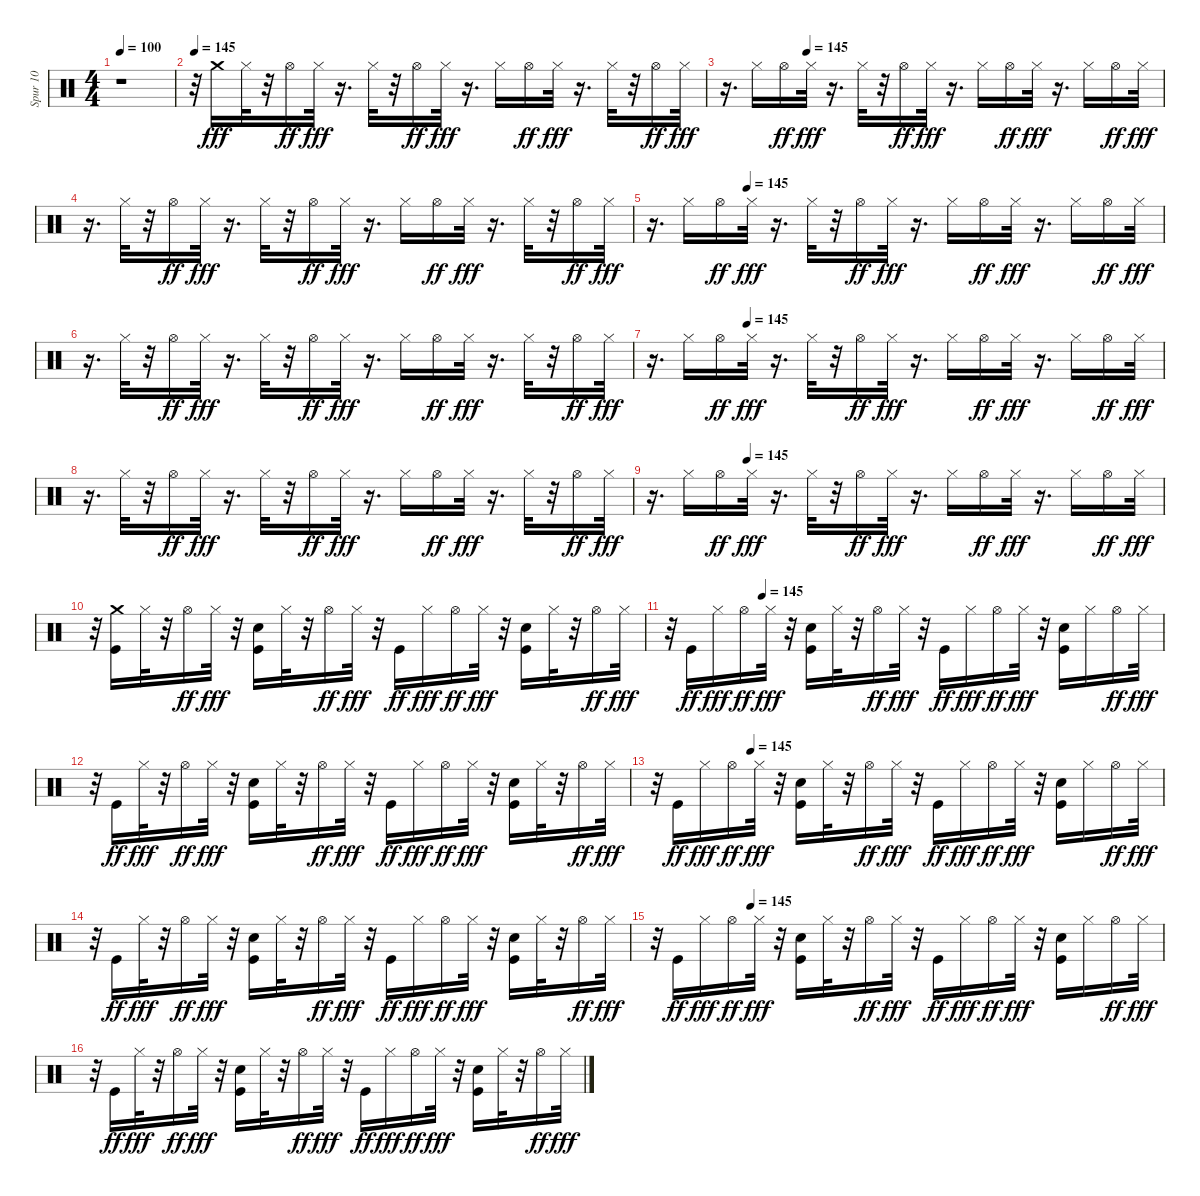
\track ("Spur 10" "Spur 10") {instrument percussion}
\staff {score}
\articulation defaults
\ts (4 4)
\tempo 100
\clef neutral
\ks c
r.1{dy fff} |
\tempo 145
r.32 "Crash medium (hit)".16 "Hi-Hat (closed)".32 r.32 "Hi-Hat (open)".16{dy ff} "Hi-Hat (closed)".32{dy fff} r.16{d} "Hi-Hat (closed)".32 r.32 "Hi-Hat (open)".16{dy ff} "Hi-Hat (closed)".32{dy fff} r.16{d} "Hi-Hat (closed)".16 "Hi-Hat (open)".16{dy ff} "Hi-Hat (closed)".32{dy fff} r.16{d} "Hi-Hat (closed)".32 r.32 "Hi-Hat (open)".16{dy ff} "Hi-Hat (closed)".32{dy fff} |
\tempo (145 0.1875)
r.16{d} "Hi-Hat (closed)".16 "Hi-Hat (open)".16{dy ff} "Hi-Hat (closed)".32{dy fff} r.16{d} "Hi-Hat (closed)".32 r.32 "Hi-Hat (open)".16{dy ff} "Hi-Hat (closed)".32{dy fff} r.16{d} "Hi-Hat (closed)".16 "Hi-Hat (open)".16{dy ff} "Hi-Hat (closed)".32{dy fff} r.16{d} "Hi-Hat (closed)".16 "Hi-Hat (open)".16{dy ff} "Hi-Hat (closed)".32{dy fff} |
r.16{d} "Hi-Hat (closed)".32 r.32 "Hi-Hat (open)".16{dy ff} "Hi-Hat (closed)".32{dy fff} r.16{d} "Hi-Hat (closed)".32 r.32 "Hi-Hat (open)".16{dy ff} "Hi-Hat (closed)".32{dy fff} r.16{d} "Hi-Hat (closed)".16 "Hi-Hat (open)".16{dy ff} "Hi-Hat (closed)".32{dy fff} r.16{d} "Hi-Hat (closed)".32 r.32 "Hi-Hat (open)".16{dy ff} "Hi-Hat (closed)".32{dy fff} |
\tempo (145 0.1875)
r.16{d} "Hi-Hat (closed)".16 "Hi-Hat (open)".16{dy ff} "Hi-Hat (closed)".32{dy fff} r.16{d} "Hi-Hat (closed)".32 r.32 "Hi-Hat (open)".16{dy ff} "Hi-Hat (closed)".32{dy fff} r.16{d} "Hi-Hat (closed)".16 "Hi-Hat (open)".16{dy ff} "Hi-Hat (closed)".32{dy fff} r.16{d} "Hi-Hat (closed)".16 "Hi-Hat (open)".16{dy ff} "Hi-Hat (closed)".32{dy fff} |
r.16{d} "Hi-Hat (closed)".32 r.32 "Hi-Hat (open)".16{dy ff} "Hi-Hat (closed)".32{dy fff} r.16{d} "Hi-Hat (closed)".32 r.32 "Hi-Hat (open)".16{dy ff} "Hi-Hat (closed)".32{dy fff} r.16{d} "Hi-Hat (closed)".16 "Hi-Hat (open)".16{dy ff} "Hi-Hat (closed)".32{dy fff} r.16{d} "Hi-Hat (closed)".32 r.32 "Hi-Hat (open)".16{dy ff} "Hi-Hat (closed)".32{dy fff} |
\tempo (145 0.1875)
r.16{d} "Hi-Hat (closed)".16 "Hi-Hat (open)".16{dy ff} "Hi-Hat (closed)".32{dy fff} r.16{d} "Hi-Hat (closed)".32 r.32 "Hi-Hat (open)".16{dy ff} "Hi-Hat (closed)".32{dy fff} r.16{d} "Hi-Hat (closed)".16 "Hi-Hat (open)".16{dy ff} "Hi-Hat (closed)".32{dy fff} r.16{d} "Hi-Hat (closed)".16 "Hi-Hat (open)".16{dy ff} "Hi-Hat (closed)".32{dy fff} |
r.16{d} "Hi-Hat (closed)".32 r.32 "Hi-Hat (open)".16{dy ff} "Hi-Hat (closed)".32{dy fff} r.16{d} "Hi-Hat (closed)".32 r.32 "Hi-Hat (open)".16{dy ff} "Hi-Hat (closed)".32{dy fff} r.16{d} "Hi-Hat (closed)".16 "Hi-Hat (open)".16{dy ff} "Hi-Hat (closed)".32{dy fff} r.16{d} "Hi-Hat (closed)".32 r.32 "Hi-Hat (open)".16{dy ff} "Hi-Hat (closed)".32{dy fff} |
\tempo (145 0.1875)
r.16{d} "Hi-Hat (closed)".16 "Hi-Hat (open)".16{dy ff} "Hi-Hat (closed)".32{dy fff} r.16{d} "Hi-Hat (closed)".32 r.32 "Hi-Hat (open)".16{dy ff} "Hi-Hat (closed)".32{dy fff} r.16{d} "Hi-Hat (closed)".16 "Hi-Hat (open)".16{dy ff} "Hi-Hat (closed)".32{dy fff} r.16{d} "Hi-Hat (closed)".16 "Hi-Hat (open)".16{dy ff} "Hi-Hat (closed)".32{dy fff} |
r.32 ("Kick (hit)" "Crash medium (hit)").16 "Hi-Hat (closed)".32 r.32 "Hi-Hat (open)".16{dy ff} "Hi-Hat (closed)".32{dy fff} r.32 ("Kick (hit)" "Hand Clap (hit)").16 "Hi-Hat (closed)".32 r.32 "Hi-Hat (open)".16{dy ff} "Hi-Hat (closed)".32{dy fff} r.32 "Kick (hit)".16{dy ff} "Hi-Hat (closed)".16{dy fff} "Hi-Hat (open)".16{dy ff} "Hi-Hat (closed)".32{dy fff} r.32 ("Kick (hit)" "Hand Clap (hit)").16 "Hi-Hat (closed)".32 r.32 "Hi-Hat (open)".16{dy ff} "Hi-Hat (closed)".32{dy fff} |
\tempo (145 0.1875)
r.32 "Kick (hit)".16{dy ff} "Hi-Hat (closed)".16{dy fff} "Hi-Hat (open)".16{dy ff} "Hi-Hat (closed)".32{dy fff} r.32 ("Kick (hit)" "Hand Clap (hit)").16 "Hi-Hat (closed)".32 r.32 "Hi-Hat (open)".16{dy ff} "Hi-Hat (closed)".32{dy fff} r.32 "Kick (hit)".16{dy ff} "Hi-Hat (closed)".16{dy fff} "Hi-Hat (open)".16{dy ff} "Hi-Hat (closed)".32{dy fff} r.32 ("Kick (hit)" "Hand Clap (hit)").16 "Hi-Hat (closed)".16 "Hi-Hat (open)".16{dy ff} "Hi-Hat (closed)".32{dy fff} |
r.32 "Kick (hit)".16{dy ff} "Hi-Hat (closed)".32{dy fff} r.32 "Hi-Hat (open)".16{dy ff} "Hi-Hat (closed)".32{dy fff} r.32 ("Kick (hit)" "Hand Clap (hit)").16 "Hi-Hat (closed)".32 r.32 "Hi-Hat (open)".16{dy ff} "Hi-Hat (closed)".32{dy fff} r.32 "Kick (hit)".16{dy ff} "Hi-Hat (closed)".16{dy fff} "Hi-Hat (open)".16{dy ff} "Hi-Hat (closed)".32{dy fff} r.32 ("Kick (hit)" "Hand Clap (hit)").16 "Hi-Hat (closed)".32 r.32 "Hi-Hat (open)".16{dy ff} "Hi-Hat (closed)".32{dy fff} |
\tempo (145 0.1875)
r.32 "Kick (hit)".16{dy ff} "Hi-Hat (closed)".16{dy fff} "Hi-Hat (open)".16{dy ff} "Hi-Hat (closed)".32{dy fff} r.32 ("Kick (hit)" "Hand Clap (hit)").16 "Hi-Hat (closed)".32 r.32 "Hi-Hat (open)".16{dy ff} "Hi-Hat (closed)".32{dy fff} r.32 "Kick (hit)".16{dy ff} "Hi-Hat (closed)".16{dy fff} "Hi-Hat (open)".16{dy ff} "Hi-Hat (closed)".32{dy fff} r.32 ("Kick (hit)" "Hand Clap (hit)").16 "Hi-Hat (closed)".16 "Hi-Hat (open)".16{dy ff} "Hi-Hat (closed)".32{dy fff} |
r.32 "Kick (hit)".16{dy ff} "Hi-Hat (closed)".32{dy fff} r.32 "Hi-Hat (open)".16{dy ff} "Hi-Hat (closed)".32{dy fff} r.32 ("Kick (hit)" "Hand Clap (hit)").16 "Hi-Hat (closed)".32 r.32 "Hi-Hat (open)".16{dy ff} "Hi-Hat (closed)".32{dy fff} r.32 "Kick (hit)".16{dy ff} "Hi-Hat (closed)".16{dy fff} "Hi-Hat (open)".16{dy ff} "Hi-Hat (closed)".32{dy fff} r.32 ("Kick (hit)" "Hand Clap (hit)").16 "Hi-Hat (closed)".32 r.32 "Hi-Hat (open)".16{dy ff} "Hi-Hat (closed)".32{dy fff} |
\tempo (145 0.1875)
r.32 "Kick (hit)".16{dy ff} "Hi-Hat (closed)".16{dy fff} "Hi-Hat (open)".16{dy ff} "Hi-Hat (closed)".32{dy fff} r.32 ("Kick (hit)" "Hand Clap (hit)").16 "Hi-Hat (closed)".32 r.32 "Hi-Hat (open)".16{dy ff} "Hi-Hat (closed)".32{dy fff} r.32 "Kick (hit)".16{dy ff} "Hi-Hat (closed)".16{dy fff} "Hi-Hat (open)".16{dy ff} "Hi-Hat (closed)".32{dy fff} r.32 ("Kick (hit)" "Hand Clap (hit)").16 "Hi-Hat (closed)".16 "Hi-Hat (open)".16{dy ff} "Hi-Hat (closed)".32{dy fff} |
r.32 "Kick (hit)".16{dy ff} "Hi-Hat (closed)".32{dy fff} r.32 "Hi-Hat (open)".16{dy ff} "Hi-Hat (closed)".32{dy fff} r.32 ("Kick (hit)" "Hand Clap (hit)").16 "Hi-Hat (closed)".32 r.32 "Hi-Hat (open)".16{dy ff} "Hi-Hat (closed)".32{dy fff} r.32 "Kick (hit)".16{dy ff} "Hi-Hat (closed)".16{dy fff} "Hi-Hat (open)".16{dy ff} "Hi-Hat (closed)".32{dy fff} r.32 ("Kick (hit)" "Hand Clap (hit)").16 "Hi-Hat (closed)".32 r.32 "Hi-Hat (open)".16{dy ff} "Hi-Hat (closed)".32{dy fff}
